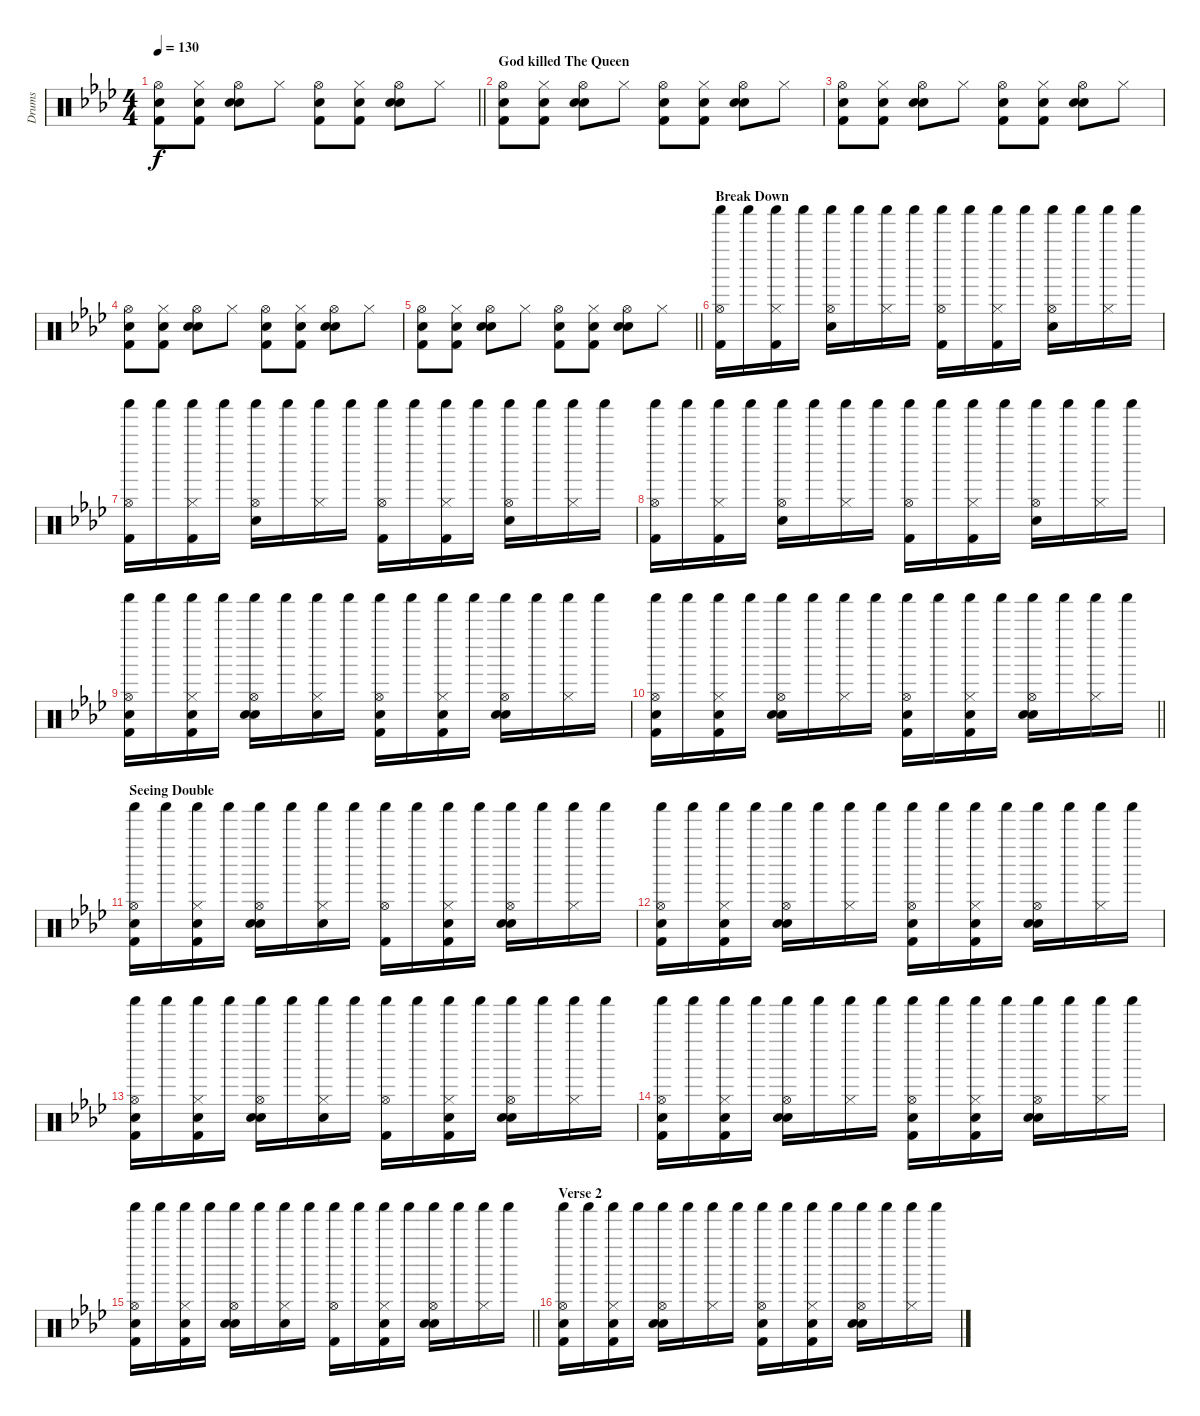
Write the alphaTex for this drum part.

\track ("Drums" "Drums") {instrument percussion}
\staff {score}
\articulation defaults
\ts (4 4)
\tempo 130
\clef neutral
\barLineRight lightlight
\ks fminor
("Hi-Hat (open)" "Hand Clap (hit)" "Kick (hit) 2").8{dy f} ("Hi-Hat (closed)" "Hand Clap (hit)" "Kick (hit) 2").8 ("Hi-Hat (open)" "Hand Clap (hit)" "Electric Snare (hit)").8 "Hi-Hat (closed)".8 ("Hi-Hat (open)" "Hand Clap (hit)" "Kick (hit) 2").8 ("Hi-Hat (closed)" "Hand Clap (hit)" "Kick (hit) 2").8 ("Hi-Hat (open)" "Hand Clap (hit)" "Electric Snare (hit)").8 "Hi-Hat (closed)".8 |
\section ("" "God killed The Queen")
("Hi-Hat (open)" "Hand Clap (hit)" "Kick (hit) 2").8 ("Hi-Hat (closed)" "Hand Clap (hit)" "Kick (hit) 2").8 ("Hi-Hat (open)" "Hand Clap (hit)" "Electric Snare (hit)").8 "Hi-Hat (closed)".8 ("Hi-Hat (open)" "Hand Clap (hit)" "Kick (hit) 2").8 ("Hi-Hat (closed)" "Hand Clap (hit)" "Kick (hit) 2").8 ("Hi-Hat (open)" "Hand Clap (hit)" "Electric Snare (hit)").8 "Hi-Hat (closed)".8 |
("Hi-Hat (open)" "Hand Clap (hit)" "Kick (hit) 2").8 ("Hi-Hat (closed)" "Hand Clap (hit)" "Kick (hit) 2").8 ("Hi-Hat (open)" "Hand Clap (hit)" "Electric Snare (hit)").8 "Hi-Hat (closed)".8 ("Hi-Hat (open)" "Hand Clap (hit)" "Kick (hit) 2").8 ("Hi-Hat (closed)" "Hand Clap (hit)" "Kick (hit) 2").8 ("Hi-Hat (open)" "Hand Clap (hit)" "Electric Snare (hit)").8 "Hi-Hat (closed)".8 |
("Hi-Hat (open)" "Hand Clap (hit)" "Kick (hit) 2").8 ("Hi-Hat (closed)" "Hand Clap (hit)" "Kick (hit) 2").8 ("Hi-Hat (open)" "Hand Clap (hit)" "Electric Snare (hit)").8 "Hi-Hat (closed)".8 ("Hi-Hat (open)" "Hand Clap (hit)" "Kick (hit) 2").8 ("Hi-Hat (closed)" "Hand Clap (hit)" "Kick (hit) 2").8 ("Hi-Hat (open)" "Hand Clap (hit)" "Electric Snare (hit)").8 "Hi-Hat (closed)".8 |
\barLineRight lightlight
("Hi-Hat (open)" "Hand Clap (hit)" "Kick (hit) 2").8 ("Hi-Hat (closed)" "Hand Clap (hit)" "Kick (hit) 2").8 ("Hi-Hat (open)" "Hand Clap (hit)" "Electric Snare (hit)").8 "Hi-Hat (closed)".8 ("Hi-Hat (open)" "Hand Clap (hit)" "Kick (hit) 2").8 ("Hi-Hat (closed)" "Hand Clap (hit)" "Kick (hit) 2").8 ("Hi-Hat (open)" "Hand Clap (hit)" "Electric Snare (hit)").8 "Hi-Hat (closed)".8 |
\section ("" "Break Down")
("Shaker (hit)" "Hi-Hat (open)" "Kick (hit) 2").16 "Shaker (hit)".16 ("Shaker (hit)" "Hi-Hat (closed)" "Kick (hit) 2").16 "Shaker (hit)".16 ("Shaker (hit)" "Hi-Hat (open)" "Electric Snare (hit)").16 "Shaker (hit)".16 ("Shaker (hit)" "Hi-Hat (closed)").16 "Shaker (hit)".16 ("Shaker (hit)" "Hi-Hat (open)" "Kick (hit) 2").16 "Shaker (hit)".16 ("Shaker (hit)" "Hi-Hat (closed)" "Kick (hit) 2").16 "Shaker (hit)".16 ("Shaker (hit)" "Hi-Hat (open)" "Electric Snare (hit)").16 "Shaker (hit)".16 ("Shaker (hit)" "Hi-Hat (closed)").16 "Shaker (hit)".16 |
("Shaker (hit)" "Hi-Hat (open)" "Kick (hit) 2").16 "Shaker (hit)".16 ("Shaker (hit)" "Hi-Hat (closed)" "Kick (hit) 2").16 "Shaker (hit)".16 ("Shaker (hit)" "Hi-Hat (open)" "Electric Snare (hit)").16 "Shaker (hit)".16 ("Shaker (hit)" "Hi-Hat (closed)").16 "Shaker (hit)".16 ("Shaker (hit)" "Hi-Hat (open)" "Kick (hit) 2").16 "Shaker (hit)".16 ("Shaker (hit)" "Hi-Hat (closed)" "Kick (hit) 2").16 "Shaker (hit)".16 ("Shaker (hit)" "Hi-Hat (open)" "Electric Snare (hit)").16 "Shaker (hit)".16 ("Shaker (hit)" "Hi-Hat (closed)").16 "Shaker (hit)".16 |
("Shaker (hit)" "Hi-Hat (open)" "Kick (hit) 2").16 "Shaker (hit)".16 ("Shaker (hit)" "Hi-Hat (closed)" "Kick (hit) 2").16 "Shaker (hit)".16 ("Shaker (hit)" "Hi-Hat (open)" "Electric Snare (hit)").16 "Shaker (hit)".16 ("Shaker (hit)" "Hi-Hat (closed)").16 "Shaker (hit)".16 ("Shaker (hit)" "Hi-Hat (open)" "Kick (hit) 2").16 "Shaker (hit)".16 ("Shaker (hit)" "Hi-Hat (closed)" "Kick (hit) 2").16 "Shaker (hit)".16 ("Shaker (hit)" "Hi-Hat (open)" "Electric Snare (hit)").16 "Shaker (hit)".16 ("Shaker (hit)" "Hi-Hat (closed)").16 "Shaker (hit)".16 |
("Shaker (hit)" "Hi-Hat (open)" "Hand Clap (hit)" "Kick (hit) 2").16 "Shaker (hit)".16 ("Shaker (hit)" "Hi-Hat (closed)" "Hand Clap (hit)" "Kick (hit) 2").16 "Shaker (hit)".16 ("Shaker (hit)" "Hi-Hat (open)" "Hand Clap (hit)" "Electric Snare (hit)").16 "Shaker (hit)".16 ("Shaker (hit)" "Hi-Hat (closed)" "Hand Clap (hit)").16 "Shaker (hit)".16 ("Shaker (hit)" "Hi-Hat (open)" "Hand Clap (hit)" "Kick (hit) 2").16 "Shaker (hit)".16 ("Shaker (hit)" "Hi-Hat (closed)" "Hand Clap (hit)" "Kick (hit) 2").16 "Shaker (hit)".16 ("Shaker (hit)" "Hi-Hat (open)" "Hand Clap (hit)" "Electric Snare (hit)").16 "Shaker (hit)".16 ("Shaker (hit)" "Hi-Hat (closed)").16 "Shaker (hit)".16 |
\barLineRight lightlight
("Shaker (hit)" "Hi-Hat (open)" "Hand Clap (hit)" "Kick (hit) 2").16 "Shaker (hit)".16 ("Shaker (hit)" "Hi-Hat (closed)" "Hand Clap (hit)" "Kick (hit) 2").16 "Shaker (hit)".16 ("Shaker (hit)" "Hi-Hat (open)" "Hand Clap (hit)" "Electric Snare (hit)").16 "Shaker (hit)".16 ("Shaker (hit)" "Hi-Hat (closed)").16 "Shaker (hit)".16 ("Shaker (hit)" "Hi-Hat (open)" "Hand Clap (hit)" "Kick (hit) 2").16 "Shaker (hit)".16 ("Shaker (hit)" "Hi-Hat (closed)" "Hand Clap (hit)" "Kick (hit) 2").16 "Shaker (hit)".16 ("Shaker (hit)" "Hi-Hat (open)" "Hand Clap (hit)" "Electric Snare (hit)").16 "Shaker (hit)".16 ("Shaker (hit)" "Hi-Hat (closed)").16 "Shaker (hit)".16 |
\section ("" "Seeing Double")
("Shaker (hit)" "Hi-Hat (open)" "Hand Clap (hit)" "Kick (hit) 2").16 "Shaker (hit)".16 ("Shaker (hit)" "Hi-Hat (closed)" "Hand Clap (hit)" "Kick (hit) 2").16 "Shaker (hit)".16 ("Shaker (hit)" "Hi-Hat (open)" "Hand Clap (hit)" "Electric Snare (hit)").16 "Shaker (hit)".16 ("Shaker (hit)" "Hi-Hat (closed)" "Hand Clap (hit)").16 "Shaker (hit)".16 ("Shaker (hit)" "Hi-Hat (open)" "Kick (hit) 2").16 "Shaker (hit)".16 ("Shaker (hit)" "Hi-Hat (closed)" "Hand Clap (hit)" "Kick (hit) 2").16 "Shaker (hit)".16 ("Shaker (hit)" "Hi-Hat (open)" "Hand Clap (hit)" "Electric Snare (hit)").16 "Shaker (hit)".16 ("Shaker (hit)" "Hi-Hat (closed)").16 "Shaker (hit)".16 |
("Shaker (hit)" "Hi-Hat (open)" "Hand Clap (hit)" "Kick (hit) 2").16 "Shaker (hit)".16 ("Shaker (hit)" "Hi-Hat (closed)" "Hand Clap (hit)" "Kick (hit) 2").16 "Shaker (hit)".16 ("Shaker (hit)" "Hi-Hat (open)" "Hand Clap (hit)" "Electric Snare (hit)").16 "Shaker (hit)".16 ("Shaker (hit)" "Hi-Hat (closed)").16 "Shaker (hit)".16 ("Shaker (hit)" "Hi-Hat (open)" "Hand Clap (hit)" "Kick (hit) 2").16 "Shaker (hit)".16 ("Shaker (hit)" "Hi-Hat (closed)" "Hand Clap (hit)" "Kick (hit) 2").16 "Shaker (hit)".16 ("Shaker (hit)" "Hi-Hat (open)" "Hand Clap (hit)" "Electric Snare (hit)").16 "Shaker (hit)".16 ("Shaker (hit)" "Hi-Hat (closed)").16 "Shaker (hit)".16 |
("Shaker (hit)" "Hi-Hat (open)" "Hand Clap (hit)" "Kick (hit) 2").16 "Shaker (hit)".16 ("Shaker (hit)" "Hi-Hat (closed)" "Hand Clap (hit)" "Kick (hit) 2").16 "Shaker (hit)".16 ("Shaker (hit)" "Hi-Hat (open)" "Hand Clap (hit)" "Electric Snare (hit)").16 "Shaker (hit)".16 ("Shaker (hit)" "Hi-Hat (closed)" "Hand Clap (hit)").16 "Shaker (hit)".16 ("Shaker (hit)" "Hi-Hat (open)" "Kick (hit) 2").16 "Shaker (hit)".16 ("Shaker (hit)" "Hi-Hat (closed)" "Hand Clap (hit)" "Kick (hit) 2").16 "Shaker (hit)".16 ("Shaker (hit)" "Hi-Hat (open)" "Hand Clap (hit)" "Electric Snare (hit)").16 "Shaker (hit)".16 ("Shaker (hit)" "Hi-Hat (closed)").16 "Shaker (hit)".16 |
("Shaker (hit)" "Hi-Hat (open)" "Hand Clap (hit)" "Kick (hit) 2").16 "Shaker (hit)".16 ("Shaker (hit)" "Hi-Hat (closed)" "Hand Clap (hit)" "Kick (hit) 2").16 "Shaker (hit)".16 ("Shaker (hit)" "Hi-Hat (open)" "Hand Clap (hit)" "Electric Snare (hit)").16 "Shaker (hit)".16 ("Shaker (hit)" "Hi-Hat (closed)").16 "Shaker (hit)".16 ("Shaker (hit)" "Hi-Hat (open)" "Hand Clap (hit)" "Kick (hit) 2").16 "Shaker (hit)".16 ("Shaker (hit)" "Hi-Hat (closed)" "Hand Clap (hit)" "Kick (hit) 2").16 "Shaker (hit)".16 ("Shaker (hit)" "Hi-Hat (open)" "Hand Clap (hit)" "Electric Snare (hit)").16 "Shaker (hit)".16 ("Shaker (hit)" "Hi-Hat (closed)").16 "Shaker (hit)".16 |
\barLineRight lightlight
("Shaker (hit)" "Hi-Hat (open)" "Hand Clap (hit)" "Kick (hit) 2").16 "Shaker (hit)".16 ("Shaker (hit)" "Hi-Hat (closed)" "Hand Clap (hit)" "Kick (hit) 2").16 "Shaker (hit)".16 ("Shaker (hit)" "Hi-Hat (open)" "Hand Clap (hit)" "Electric Snare (hit)").16 "Shaker (hit)".16 ("Shaker (hit)" "Hi-Hat (closed)" "Hand Clap (hit)").16 "Shaker (hit)".16 ("Shaker (hit)" "Hi-Hat (open)" "Kick (hit) 2").16 "Shaker (hit)".16 ("Shaker (hit)" "Hi-Hat (closed)" "Hand Clap (hit)" "Kick (hit) 2").16 "Shaker (hit)".16 ("Shaker (hit)" "Hi-Hat (open)" "Hand Clap (hit)" "Electric Snare (hit)").16 "Shaker (hit)".16 ("Shaker (hit)" "Hi-Hat (closed)").16 "Shaker (hit)".16 |
\section ("" "Verse 2")
("Shaker (hit)" "Hi-Hat (open)" "Hand Clap (hit)" "Kick (hit) 2").16 "Shaker (hit)".16 ("Shaker (hit)" "Hi-Hat (closed)" "Hand Clap (hit)" "Kick (hit) 2").16 "Shaker (hit)".16 ("Shaker (hit)" "Hi-Hat (open)" "Hand Clap (hit)" "Electric Snare (hit)").16 "Shaker (hit)".16 ("Shaker (hit)" "Hi-Hat (closed)").16 "Shaker (hit)".16 ("Shaker (hit)" "Hi-Hat (open)" "Hand Clap (hit)" "Kick (hit) 2").16 "Shaker (hit)".16 ("Shaker (hit)" "Hi-Hat (closed)" "Hand Clap (hit)" "Kick (hit) 2").16 "Shaker (hit)".16 ("Shaker (hit)" "Hi-Hat (open)" "Hand Clap (hit)" "Electric Snare (hit)").16 "Shaker (hit)".16 ("Shaker (hit)" "Hi-Hat (closed)").16 "Shaker (hit)".16
